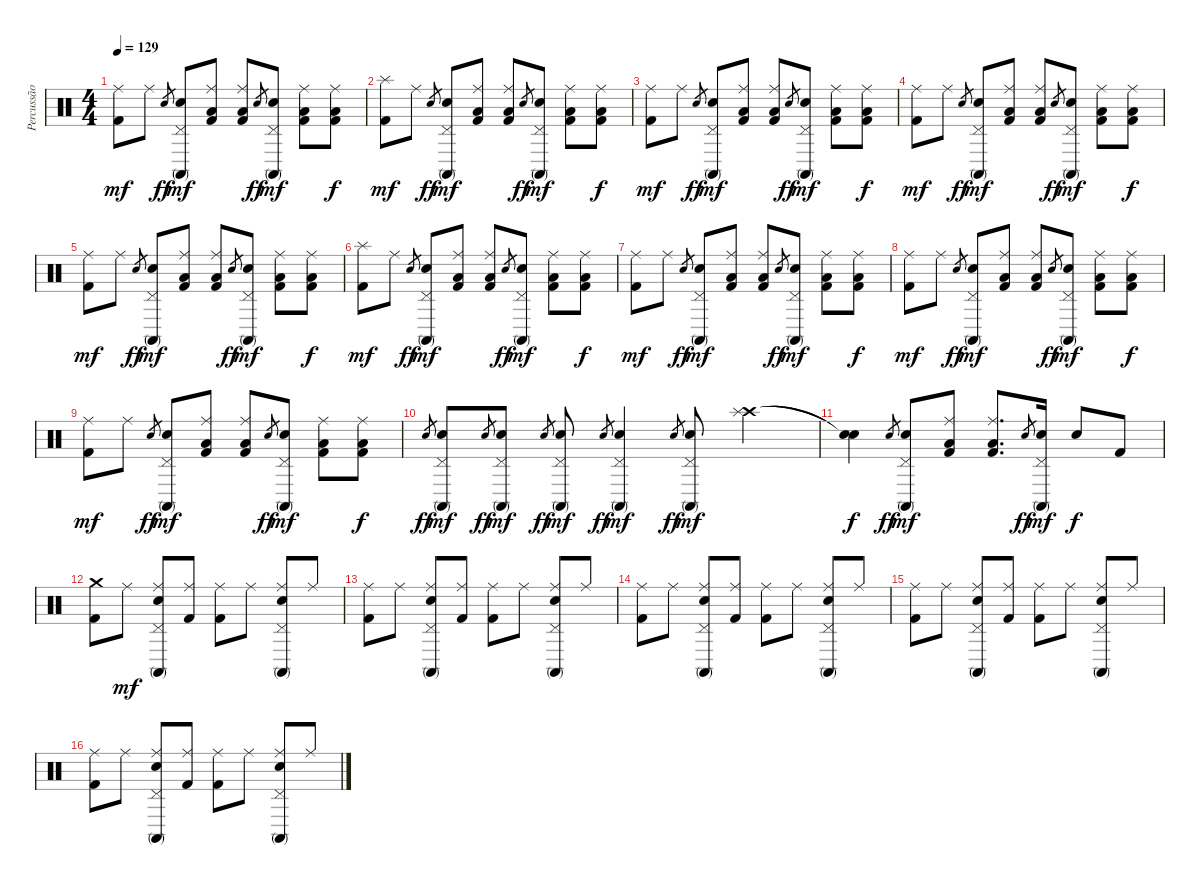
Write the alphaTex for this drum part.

\track ("Percussão" "Percussão") {instrument percussion}
\staff {score}
\articulation defaults
\ts (4 4)
\tempo 129
\clef neutral
\ks c
("Ride (middle)" "Kick (hit) 2").8{dy mf} "Ride (middle)".8 "Snare (hit) 2".8{gr dy ff} ("Snare (hit) 2" "Conga high (mute)" "Pedal Hi-Hat (hit)").8{dy mf} ("Ride (middle)" "Low Floor Tom (hit)" "Kick (hit) 2").8 ("Ride (middle)" "Low Floor Tom (hit)" "Kick (hit) 2").8 "Snare (hit) 2".8{gr dy ff} ("Snare (hit) 2" "Conga high (mute)" "Pedal Hi-Hat (hit)").8{dy mf} ("Ride (middle)" "Low Floor Tom (hit)" "Kick (hit) 2").8 ("Ride (middle)" "Low Floor Tom (hit)" "Kick (hit) 2").8{dy f} |
("Splash (hit)" "Kick (hit) 2").8{dy mf} "Ride (middle)".8 "Snare (hit) 2".8{gr dy ff} ("Snare (hit) 2" "Conga high (mute)" "Pedal Hi-Hat (hit)").8{dy mf} ("Ride (middle)" "Low Floor Tom (hit)" "Kick (hit) 2").8 ("Ride (middle)" "Low Floor Tom (hit)" "Kick (hit) 2").8 "Snare (hit) 2".8{gr dy ff} ("Snare (hit) 2" "Conga high (mute)" "Pedal Hi-Hat (hit)").8{dy mf} ("Ride (middle)" "Low Floor Tom (hit)" "Kick (hit) 2").8 ("Ride (middle)" "Low Floor Tom (hit)" "Kick (hit) 2").8{dy f} |
("Ride (middle)" "Kick (hit) 2").8{dy mf} "Ride (middle)".8 "Snare (hit) 2".8{gr dy ff} ("Snare (hit) 2" "Conga high (mute)" "Pedal Hi-Hat (hit)").8{dy mf} ("Ride (middle)" "Low Floor Tom (hit)" "Kick (hit) 2").8 ("Ride (middle)" "Low Floor Tom (hit)" "Kick (hit) 2").8 "Snare (hit) 2".8{gr dy ff} ("Snare (hit) 2" "Conga high (mute)" "Pedal Hi-Hat (hit)").8{dy mf} ("Ride (middle)" "Low Floor Tom (hit)" "Kick (hit) 2").8 ("Ride (middle)" "Low Floor Tom (hit)" "Kick (hit) 2").8{dy f} |
("Ride (middle)" "Kick (hit) 2").8{dy mf} "Ride (middle)".8 "Snare (hit) 2".8{gr dy ff} ("Snare (hit) 2" "Conga high (mute)" "Pedal Hi-Hat (hit)").8{dy mf} ("Ride (middle)" "Low Floor Tom (hit)" "Kick (hit) 2").8 ("Ride (middle)" "Low Floor Tom (hit)" "Kick (hit) 2").8 "Snare (hit) 2".8{gr dy ff} ("Snare (hit) 2" "Conga high (mute)" "Pedal Hi-Hat (hit)").8{dy mf} ("Ride (middle)" "Low Floor Tom (hit)" "Kick (hit) 2").8 ("Ride (middle)" "Low Floor Tom (hit)" "Kick (hit) 2").8{dy f} |
("Ride (middle)" "Kick (hit) 2").8{dy mf} "Ride (middle)".8 "Snare (hit) 2".8{gr dy ff} ("Snare (hit) 2" "Conga high (mute)" "Pedal Hi-Hat (hit)").8{dy mf} ("Ride (middle)" "Low Floor Tom (hit)" "Kick (hit) 2").8 ("Ride (middle)" "Low Floor Tom (hit)" "Kick (hit) 2").8 "Snare (hit) 2".8{gr dy ff} ("Snare (hit) 2" "Conga high (mute)" "Pedal Hi-Hat (hit)").8{dy mf} ("Ride (middle)" "Low Floor Tom (hit)" "Kick (hit) 2").8 ("Ride (middle)" "Low Floor Tom (hit)" "Kick (hit) 2").8{dy f} |
("Splash (hit)" "Kick (hit) 2").8{dy mf} "Ride (middle)".8 "Snare (hit) 2".8{gr dy ff} ("Snare (hit) 2" "Conga high (mute)" "Pedal Hi-Hat (hit)").8{dy mf} ("Ride (middle)" "Low Floor Tom (hit)" "Kick (hit) 2").8 ("Ride (middle)" "Low Floor Tom (hit)" "Kick (hit) 2").8 "Snare (hit) 2".8{gr dy ff} ("Snare (hit) 2" "Conga high (mute)" "Pedal Hi-Hat (hit)").8{dy mf} ("Ride (middle)" "Low Floor Tom (hit)" "Kick (hit) 2").8 ("Ride (middle)" "Low Floor Tom (hit)" "Kick (hit) 2").8{dy f} |
("Ride (middle)" "Kick (hit) 2").8{dy mf} "Ride (middle)".8 "Snare (hit) 2".8{gr dy ff} ("Snare (hit) 2" "Conga high (mute)" "Pedal Hi-Hat (hit)").8{dy mf} ("Ride (middle)" "Low Floor Tom (hit)" "Kick (hit) 2").8 ("Ride (middle)" "Low Floor Tom (hit)" "Kick (hit) 2").8 "Snare (hit) 2".8{gr dy ff} ("Snare (hit) 2" "Conga high (mute)" "Pedal Hi-Hat (hit)").8{dy mf} ("Ride (middle)" "Low Floor Tom (hit)" "Kick (hit) 2").8 ("Ride (middle)" "Low Floor Tom (hit)" "Kick (hit) 2").8{dy f} |
("Ride (middle)" "Kick (hit) 2").8{dy mf} "Ride (middle)".8 "Snare (hit) 2".8{gr dy ff} ("Snare (hit) 2" "Conga high (mute)" "Pedal Hi-Hat (hit)").8{dy mf} ("Ride (middle)" "Low Floor Tom (hit)" "Kick (hit) 2").8 ("Ride (middle)" "Low Floor Tom (hit)" "Kick (hit) 2").8 "Snare (hit) 2".8{gr dy ff} ("Snare (hit) 2" "Conga high (mute)" "Pedal Hi-Hat (hit)").8{dy mf} ("Ride (middle)" "Low Floor Tom (hit)" "Kick (hit) 2").8 ("Ride (middle)" "Low Floor Tom (hit)" "Kick (hit) 2").8{dy f} |
("Ride (middle)" "Kick (hit) 2").8{dy mf} "Ride (middle)".8 "Snare (hit) 2".8{gr dy ff} ("Snare (hit) 2" "Conga high (mute)" "Pedal Hi-Hat (hit)").8{dy mf} ("Ride (middle)" "Low Floor Tom (hit)" "Kick (hit) 2").8 ("Ride (middle)" "Low Floor Tom (hit)" "Kick (hit) 2").8 "Snare (hit) 2".8{gr dy ff} ("Snare (hit) 2" "Conga high (mute)" "Pedal Hi-Hat (hit)").8{dy mf} ("Ride (middle)" "Low Floor Tom (hit)" "Kick (hit) 2").8 ("Ride (middle)" "Low Floor Tom (hit)" "Kick (hit) 2").8{dy f} |
"Snare (hit) 2".8{gr dy ff} ("Snare (hit) 2" "Conga high (mute)" "Pedal Hi-Hat (hit)").8{dy mf} "Snare (hit) 2".8{gr dy ff} ("Snare (hit) 2" "Conga high (mute)" "Pedal Hi-Hat (hit)").8{dy mf} "Snare (hit) 2".8{gr dy ff} ("Snare (hit) 2" "Conga high (mute)" "Pedal Hi-Hat (hit)").8{dy mf} "Snare (hit) 2".8{gr dy ff} ("Snare (hit) 2" "Conga high (mute)" "Pedal Hi-Hat (hit)").4{dy mf} "Snare (hit) 2".8{gr dy ff} ("Snare (hit) 2" "Conga high (mute)" "Pedal Hi-Hat (hit)").8{dy mf} ("Crash high (hit)" "Splash (hit)").4 |
("Snare (hit)"{t} "Snare (hit)"{t}).4{dy f} "Snare (hit) 2".8{gr dy ff} ("Snare (hit) 2" "Conga high (mute)" "Pedal Hi-Hat (hit)").8{dy mf} ("Ride (middle)" "Low Floor Tom (hit)" "Kick (hit) 2").8 ("Ride (middle)" "Low Floor Tom (hit)" "Kick (hit) 2").8{d} "Snare (hit) 2".8{gr dy ff} ("Snare (hit) 2" "Conga high (mute)" "Pedal Hi-Hat (hit)").16{dy mf} "Snare (hit) 2".8{dy f} "Kick (hit) 2".8 |
("Crash medium (hit)" "Kick (hit) 2").8 "Ride (middle)".8{dy mf} ("Ride (middle)" "Snare (hit) 2" "Conga high (mute)" "Pedal Hi-Hat (hit)").8 ("Ride (middle)" "Kick (hit) 2").8 ("Ride (middle)" "Kick (hit) 2").8 "Ride (middle)".8 ("Ride (middle)" "Snare (hit) 2" "Conga high (mute)" "Pedal Hi-Hat (hit)").8 "Ride (middle)".8 |
("Ride (middle)" "Kick (hit) 2").8 "Ride (middle)".8 ("Ride (middle)" "Snare (hit) 2" "Conga high (mute)" "Pedal Hi-Hat (hit)").8 ("Ride (middle)" "Kick (hit) 2").8 ("Ride (middle)" "Kick (hit) 2").8 "Ride (middle)".8 ("Ride (middle)" "Snare (hit) 2" "Conga high (mute)" "Pedal Hi-Hat (hit)").8 "Ride (middle)".8 |
("Ride (middle)" "Kick (hit) 2").8 "Ride (middle)".8 ("Ride (middle)" "Snare (hit) 2" "Conga high (mute)" "Pedal Hi-Hat (hit)").8 ("Ride (middle)" "Kick (hit) 2").8 ("Ride (middle)" "Kick (hit) 2").8 "Ride (middle)".8 ("Ride (middle)" "Snare (hit) 2" "Conga high (mute)" "Pedal Hi-Hat (hit)").8 "Ride (middle)".8 |
("Ride (middle)" "Kick (hit) 2").8 "Ride (middle)".8 ("Ride (middle)" "Snare (hit) 2" "Conga high (mute)" "Pedal Hi-Hat (hit)").8 ("Ride (middle)" "Kick (hit) 2").8 ("Ride (middle)" "Kick (hit) 2").8 "Ride (middle)".8 ("Ride (middle)" "Snare (hit) 2" "Conga high (mute)" "Pedal Hi-Hat (hit)").8 "Ride (middle)".8 |
("Ride (middle)" "Kick (hit) 2").8 "Ride (middle)".8 ("Ride (middle)" "Snare (hit) 2" "Conga high (mute)" "Pedal Hi-Hat (hit)").8 ("Ride (middle)" "Kick (hit) 2").8 ("Ride (middle)" "Kick (hit) 2").8 "Ride (middle)".8 ("Ride (middle)" "Snare (hit) 2" "Conga high (mute)" "Pedal Hi-Hat (hit)").8 "Ride (middle)".8
